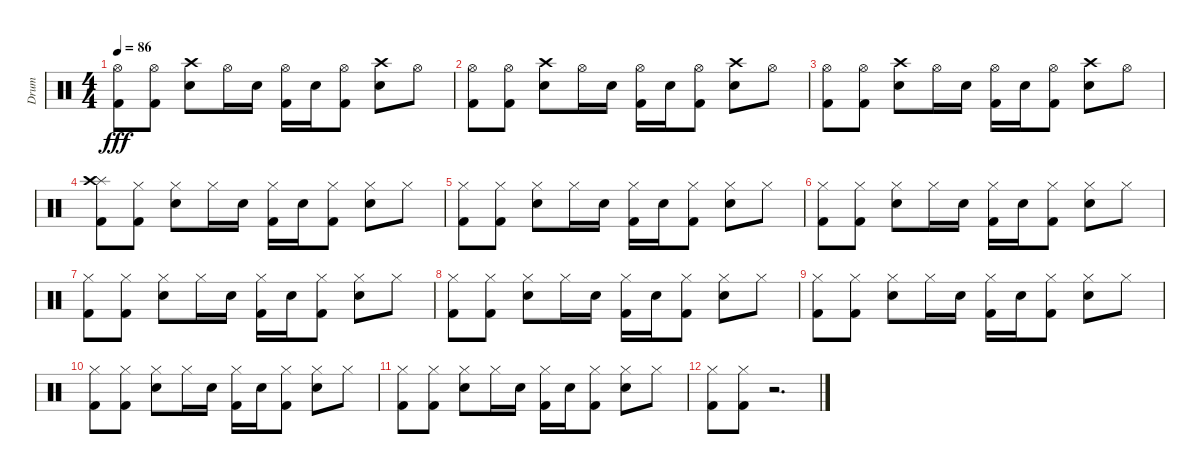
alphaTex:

\track ("Drum" "Drum") {instrument percussion}
\staff {score}
\articulation defaults
\ts (4 4)
\tempo 86
\clef neutral
\ks c
("Hi-Hat (open)" "Kick (hit) 2").8{dy fff} ("Hi-Hat (open)" "Kick (hit) 2").8 ("Crash high (hit)" "Electric Snare (hit)").8 "Hi-Hat (open)".16 "Electric Snare (hit)".16 ("Hi-Hat (open)" "Kick (hit) 2").16 "Electric Snare (hit)".16 ("Hi-Hat (open)" "Kick (hit) 2").8 ("Crash high (hit)" "Electric Snare (hit)").8 "Hi-Hat (open)".8 |
("Hi-Hat (open)" "Kick (hit) 2").8 ("Hi-Hat (open)" "Kick (hit) 2").8 ("Crash high (hit)" "Electric Snare (hit)").8 "Hi-Hat (open)".16 "Electric Snare (hit)".16 ("Hi-Hat (open)" "Kick (hit) 2").16 "Electric Snare (hit)".16 ("Hi-Hat (open)" "Kick (hit) 2").8 ("Crash high (hit)" "Electric Snare (hit)").8 "Hi-Hat (open)".8 |
("Hi-Hat (open)" "Kick (hit) 2").8 ("Hi-Hat (open)" "Kick (hit) 2").8 ("Crash high (hit)" "Electric Snare (hit)").8 "Hi-Hat (open)".16 "Electric Snare (hit)".16 ("Hi-Hat (open)" "Kick (hit) 2").16 "Electric Snare (hit)".16 ("Hi-Hat (open)" "Kick (hit) 2").8 ("Crash high (hit)" "Electric Snare (hit)").8 "Hi-Hat (open)".8 |
("Splash (hit)" "Crash high (hit)" "Kick (hit) 2").8 ("Hi-Hat (closed)" "Kick (hit) 2").8 ("Hi-Hat (closed)" "Electric Snare (hit)").8 "Hi-Hat (closed)".16 "Electric Snare (hit)".16 ("Hi-Hat (closed)" "Kick (hit) 2").16 "Electric Snare (hit)".16 ("Hi-Hat (closed)" "Kick (hit) 2").8 ("Hi-Hat (closed)" "Electric Snare (hit)").8 "Hi-Hat (closed)".8 |
("Hi-Hat (closed)" "Kick (hit) 2").8 ("Hi-Hat (closed)" "Kick (hit) 2").8 ("Hi-Hat (closed)" "Electric Snare (hit)").8 "Hi-Hat (closed)".16 "Electric Snare (hit)".16 ("Hi-Hat (closed)" "Kick (hit) 2").16 "Electric Snare (hit)".16 ("Hi-Hat (closed)" "Kick (hit) 2").8 ("Hi-Hat (closed)" "Electric Snare (hit)").8 "Hi-Hat (closed)".8 |
("Hi-Hat (closed)" "Kick (hit) 2").8 ("Hi-Hat (closed)" "Kick (hit) 2").8 ("Hi-Hat (closed)" "Electric Snare (hit)").8 "Hi-Hat (closed)".16 "Electric Snare (hit)".16 ("Hi-Hat (closed)" "Kick (hit) 2").16 "Electric Snare (hit)".16 ("Hi-Hat (closed)" "Kick (hit) 2").8 ("Hi-Hat (closed)" "Electric Snare (hit)").8 "Hi-Hat (closed)".8 |
("Hi-Hat (closed)" "Kick (hit) 2").8 ("Hi-Hat (closed)" "Kick (hit) 2").8 ("Hi-Hat (closed)" "Electric Snare (hit)").8 "Hi-Hat (closed)".16 "Electric Snare (hit)".16 ("Hi-Hat (closed)" "Kick (hit) 2").16 "Electric Snare (hit)".16 ("Hi-Hat (closed)" "Kick (hit) 2").8 ("Hi-Hat (closed)" "Electric Snare (hit)").8 "Hi-Hat (closed)".8 |
("Hi-Hat (closed)" "Kick (hit) 2").8 ("Hi-Hat (closed)" "Kick (hit) 2").8 ("Hi-Hat (closed)" "Electric Snare (hit)").8 "Hi-Hat (closed)".16 "Electric Snare (hit)".16 ("Hi-Hat (closed)" "Kick (hit) 2").16 "Electric Snare (hit)".16 ("Hi-Hat (closed)" "Kick (hit) 2").8 ("Hi-Hat (closed)" "Electric Snare (hit)").8 "Hi-Hat (closed)".8 |
("Hi-Hat (closed)" "Kick (hit) 2").8 ("Hi-Hat (closed)" "Kick (hit) 2").8 ("Hi-Hat (closed)" "Electric Snare (hit)").8 "Hi-Hat (closed)".16 "Electric Snare (hit)".16 ("Hi-Hat (closed)" "Kick (hit) 2").16 "Electric Snare (hit)".16 ("Hi-Hat (closed)" "Kick (hit) 2").8 ("Hi-Hat (closed)" "Electric Snare (hit)").8 "Hi-Hat (closed)".8 |
("Hi-Hat (closed)" "Kick (hit) 2").8 ("Hi-Hat (closed)" "Kick (hit) 2").8 ("Hi-Hat (closed)" "Electric Snare (hit)").8 "Hi-Hat (closed)".16 "Electric Snare (hit)".16 ("Hi-Hat (closed)" "Kick (hit) 2").16 "Electric Snare (hit)".16 ("Hi-Hat (closed)" "Kick (hit) 2").8 ("Hi-Hat (closed)" "Electric Snare (hit)").8 "Hi-Hat (closed)".8 |
("Hi-Hat (closed)" "Kick (hit) 2").8 ("Hi-Hat (closed)" "Kick (hit) 2").8 ("Hi-Hat (closed)" "Electric Snare (hit)").8 "Hi-Hat (closed)".16 "Electric Snare (hit)".16 ("Hi-Hat (closed)" "Kick (hit) 2").16 "Electric Snare (hit)".16 ("Hi-Hat (closed)" "Kick (hit) 2").8 ("Hi-Hat (closed)" "Electric Snare (hit)").8 "Hi-Hat (closed)".8 |
("Hi-Hat (closed)" "Kick (hit) 2").8 ("Hi-Hat (closed)" "Kick (hit) 2").8 r.2{d}
